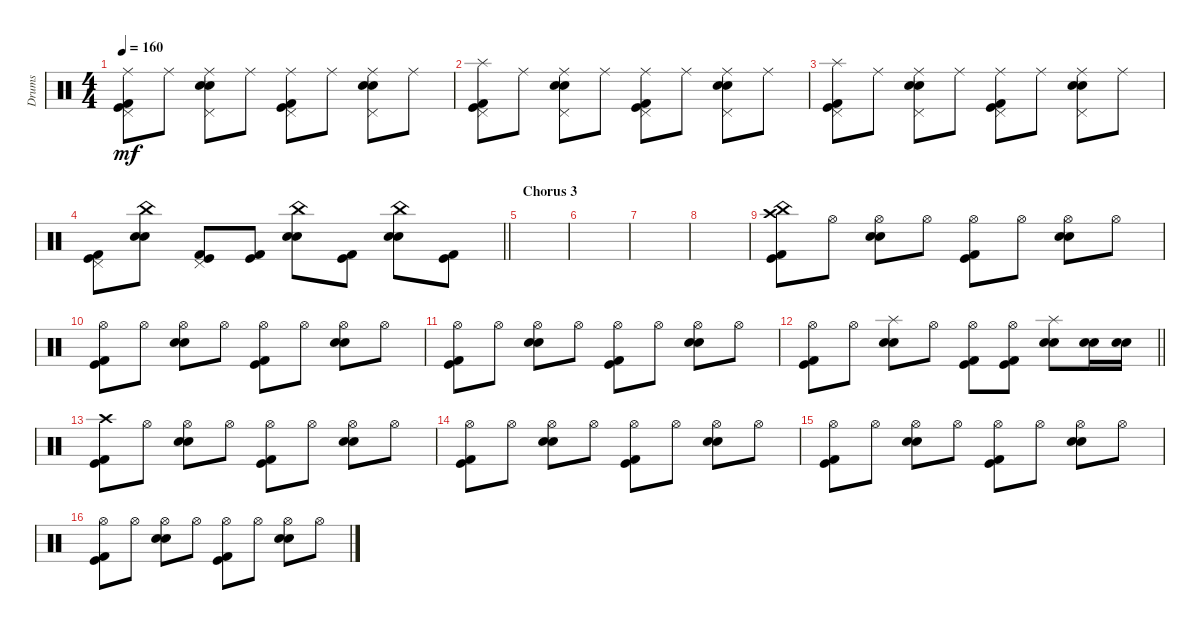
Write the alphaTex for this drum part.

\track ("Drums" "Drums") {instrument percussion}
\staff {score}
\articulation defaults
\ts (4 4)
\tempo 160
\clef neutral
\ks c
("Ride (middle)" "Pedal Hi-Hat (hit)" "Kick (hit) 2" "Kick (hit)").8{dy mf} "Ride (middle)".8 ("Ride (middle)" "Pedal Hi-Hat (hit)" "Snare (hit) 2" "Electric Snare (hit)").8 "Ride (middle)".8 ("Ride (middle)" "Pedal Hi-Hat (hit)" "Kick (hit) 2" "Kick (hit)").8 "Ride (middle)".8 ("Ride (middle)" "Pedal Hi-Hat (hit)" "Snare (hit) 2" "Electric Snare (hit)").8 "Ride (middle)".8 |
("Splash (hit)" "Pedal Hi-Hat (hit)" "Kick (hit) 2" "Kick (hit)").8 "Ride (middle)".8 ("Ride (middle)" "Pedal Hi-Hat (hit)" "Snare (hit) 2" "Electric Snare (hit)").8 "Ride (middle)".8 ("Ride (middle)" "Pedal Hi-Hat (hit)" "Kick (hit) 2" "Kick (hit)").8 "Ride (middle)".8 ("Ride (middle)" "Pedal Hi-Hat (hit)" "Snare (hit) 2" "Electric Snare (hit)").8 "Ride (middle)".8 |
("Splash (hit)" "Pedal Hi-Hat (hit)" "Kick (hit) 2" "Kick (hit)").8 "Ride (middle)".8 ("Ride (middle)" "Pedal Hi-Hat (hit)" "Snare (hit) 2" "Electric Snare (hit)").8 "Ride (middle)".8 ("Ride (middle)" "Pedal Hi-Hat (hit)" "Kick (hit) 2" "Kick (hit)").8 "Ride (middle)".8 ("Ride (middle)" "Pedal Hi-Hat (hit)" "Snare (hit) 2" "Electric Snare (hit)").8 "Ride (middle)".8 |
\barLineRight lightlight
("Pedal Hi-Hat (hit)" "Kick (hit) 2" "Kick (hit)").8 ("China (hit)" "Snare (hit) 2" "Electric Snare (hit)").8 ("Pedal Hi-Hat (hit)" "Kick (hit) 2" "Kick (hit)").8 ("Kick (hit) 2" "Kick (hit)").8 ("China (hit)" "Snare (hit) 2" "Electric Snare (hit)").8 ("Kick (hit) 2" "Kick (hit)").8 ("China (hit)" "Snare (hit) 2" "Electric Snare (hit)").8 ("Kick (hit) 2" "Kick (hit)").8 |
\section ("" "Chorus 3")
|
|
|
|
("Crash high (hit)" "China (hit)" "Kick (hit) 2" "Kick (hit)").8 "Hi-Hat (open)".8 ("Hi-Hat (open)" "Snare (hit) 2" "Electric Snare (hit)").8 "Hi-Hat (open)".8 ("Hi-Hat (open)" "Kick (hit) 2" "Kick (hit)").8 "Hi-Hat (open)".8 ("Hi-Hat (open)" "Snare (hit) 2" "Electric Snare (hit)").8 "Hi-Hat (open)".8 |
("Hi-Hat (open)" "Kick (hit) 2" "Kick (hit)").8 "Hi-Hat (open)".8 ("Hi-Hat (open)" "Snare (hit) 2" "Electric Snare (hit)").8 "Hi-Hat (open)".8 ("Hi-Hat (open)" "Kick (hit) 2" "Kick (hit)").8 "Hi-Hat (open)".8 ("Hi-Hat (open)" "Snare (hit) 2" "Electric Snare (hit)").8 "Hi-Hat (open)".8 |
("Hi-Hat (open)" "Kick (hit) 2" "Kick (hit)").8 "Hi-Hat (open)".8 ("Hi-Hat (open)" "Snare (hit) 2" "Electric Snare (hit)").8 "Hi-Hat (open)".8 ("Hi-Hat (open)" "Kick (hit) 2" "Kick (hit)").8 "Hi-Hat (open)".8 ("Hi-Hat (open)" "Snare (hit) 2" "Electric Snare (hit)").8 "Hi-Hat (open)".8 |
\barLineRight lightlight
("Hi-Hat (open)" "Kick (hit) 2" "Kick (hit)").8 "Hi-Hat (open)".8 ("Splash (hit)" "Snare (hit) 2" "Electric Snare (hit)").8 "Hi-Hat (open)".8 ("Hi-Hat (open)" "Kick (hit) 2" "Kick (hit)").8 ("Hi-Hat (open)" "Kick (hit) 2" "Kick (hit)").8 ("Splash (hit)" "Snare (hit) 2" "Electric Snare (hit)").8 ("Snare (hit) 2" "Electric Snare (hit)").16 ("Snare (hit) 2" "Electric Snare (hit)").16 |
("Crash high (hit)" "Kick (hit) 2" "Kick (hit)").8 "Hi-Hat (open)".8 ("Hi-Hat (open)" "Snare (hit) 2" "Electric Snare (hit)").8 "Hi-Hat (open)".8 ("Hi-Hat (open)" "Kick (hit) 2" "Kick (hit)").8 "Hi-Hat (open)".8 ("Hi-Hat (open)" "Snare (hit) 2" "Electric Snare (hit)").8 "Hi-Hat (open)".8 |
("Hi-Hat (open)" "Kick (hit) 2" "Kick (hit)").8 "Hi-Hat (open)".8 ("Hi-Hat (open)" "Snare (hit) 2" "Electric Snare (hit)").8 "Hi-Hat (open)".8 ("Hi-Hat (open)" "Kick (hit) 2" "Kick (hit)").8 "Hi-Hat (open)".8 ("Hi-Hat (open)" "Snare (hit) 2" "Electric Snare (hit)").8 "Hi-Hat (open)".8 |
("Hi-Hat (open)" "Kick (hit) 2" "Kick (hit)").8 "Hi-Hat (open)".8 ("Hi-Hat (open)" "Snare (hit) 2" "Electric Snare (hit)").8 "Hi-Hat (open)".8 ("Hi-Hat (open)" "Kick (hit) 2" "Kick (hit)").8 "Hi-Hat (open)".8 ("Hi-Hat (open)" "Snare (hit) 2" "Electric Snare (hit)").8 "Hi-Hat (open)".8 |
("Hi-Hat (open)" "Kick (hit) 2" "Kick (hit)").8 "Hi-Hat (open)".8 ("Hi-Hat (open)" "Snare (hit) 2" "Electric Snare (hit)").8 "Hi-Hat (open)".8 ("Hi-Hat (open)" "Kick (hit) 2" "Kick (hit)").8 "Hi-Hat (open)".8 ("Hi-Hat (open)" "Snare (hit) 2" "Electric Snare (hit)").8 "Hi-Hat (open)".8
